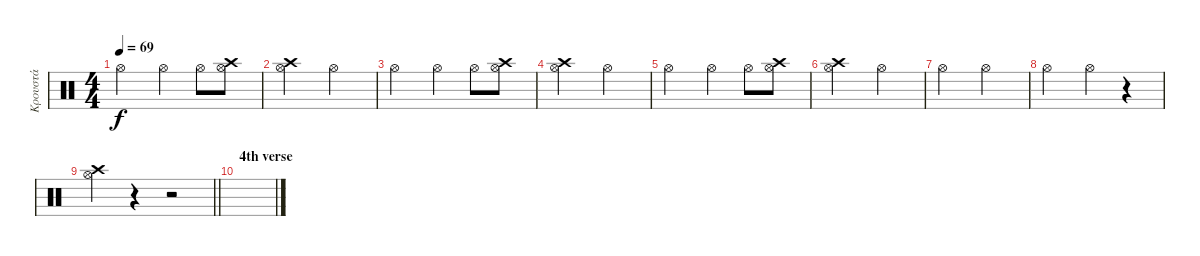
\track ("Κρουστά" "Κρουστά") {instrument percussion}
\staff {score}
\articulation defaults
\ts (4 4)
\tempo 69
\clef neutral
\ks c "Hi-Hat (open)".2{dy f} "Hi-Hat (open)".4 "Hi-Hat (open)".8
("Hi-Hat (open)" "Crash high (hit)").8 |
("Hi-Hat (open)" "Crash high (hit)").2 "Hi-Hat (open)".2 |
"Hi-Hat (open)".2 "Hi-Hat (open)".4 "Hi-Hat (open)".8 ("Hi-Hat (open)" "Crash high (hit)").8 |
("Hi-Hat (open)" "Crash high (hit)").2 "Hi-Hat (open)".2 |
"Hi-Hat (open)".2 "Hi-Hat (open)".4 "Hi-Hat (open)".8 ("Hi-Hat (open)" "Crash high (hit)").8 |
("Hi-Hat (open)" "Crash high (hit)").2 "Hi-Hat (open)".2 |
"Hi-Hat (open)".2 "Hi-Hat (open)".2 |
"Hi-Hat (open)".2 "Hi-Hat (open)".4 r.4 |
\barLineRight lightlight
("Hi-Hat (open)" "Crash high (hit)").4 r.4 r.2 |
\section ("" "4th verse")
